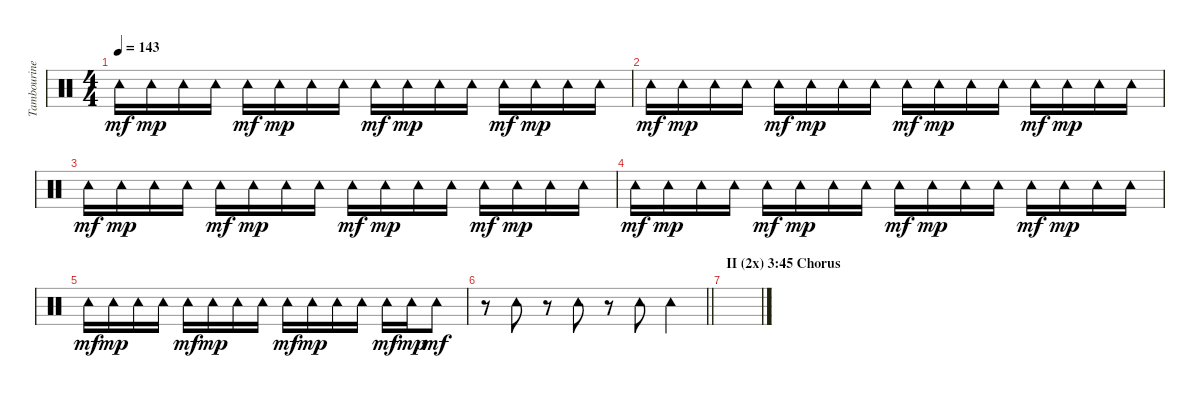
\track ("Tambourine ( I Verse + IV Solo)" "Tambourine") {instrument percussion}
\staff {score}
\articulation defaults
\ts (4 4)
\tempo 143
\clef neutral
\ks c "Tambourine (hit)".16{dy mf} "Tambourine (hit)".16{dy mp} "Tambourine (hit)".16 "Tambourine (hit)".16 "Tambourine (hit)".16{dy mf} "Tambourine (hit)".16{dy mp} "Tambourine (hit)".16 "Tambourine (hit)".16 "Tambourine (hit)".16{dy mf} "Tambourine (hit)".16{dy mp} "Tambourine (hit)".16 "Tambourine (hit)".16 "Tambourine (hit)".16{dy mf} "Tambourine (hit)".16{dy mp} "Tambourine (hit)".16 "Tambourine (hit)".16
|
"Tambourine (hit)".16{dy mf} "Tambourine (hit)".16{dy mp} "Tambourine (hit)".16 "Tambourine (hit)".16 "Tambourine (hit)".16{dy mf} "Tambourine (hit)".16{dy mp} "Tambourine (hit)".16 "Tambourine (hit)".16 "Tambourine (hit)".16{dy mf} "Tambourine (hit)".16{dy mp} "Tambourine (hit)".16 "Tambourine (hit)".16 "Tambourine (hit)".16{dy mf} "Tambourine (hit)".16{dy mp} "Tambourine (hit)".16 "Tambourine (hit)".16 |
"Tambourine (hit)".16{dy mf} "Tambourine (hit)".16{dy mp} "Tambourine (hit)".16 "Tambourine (hit)".16 "Tambourine (hit)".16{dy mf} "Tambourine (hit)".16{dy mp} "Tambourine (hit)".16 "Tambourine (hit)".16 "Tambourine (hit)".16{dy mf} "Tambourine (hit)".16{dy mp} "Tambourine (hit)".16 "Tambourine (hit)".16 "Tambourine (hit)".16{dy mf} "Tambourine (hit)".16{dy mp} "Tambourine (hit)".16 "Tambourine (hit)".16 |
"Tambourine (hit)".16{dy mf} "Tambourine (hit)".16{dy mp} "Tambourine (hit)".16 "Tambourine (hit)".16 "Tambourine (hit)".16{dy mf} "Tambourine (hit)".16{dy mp} "Tambourine (hit)".16 "Tambourine (hit)".16 "Tambourine (hit)".16{dy mf} "Tambourine (hit)".16{dy mp} "Tambourine (hit)".16 "Tambourine (hit)".16 "Tambourine (hit)".16{dy mf} "Tambourine (hit)".16{dy mp} "Tambourine (hit)".16 "Tambourine (hit)".16 |
"Tambourine (hit)".16{dy mf} "Tambourine (hit)".16{dy mp} "Tambourine (hit)".16 "Tambourine (hit)".16 "Tambourine (hit)".16{dy mf} "Tambourine (hit)".16{dy mp} "Tambourine (hit)".16 "Tambourine (hit)".16 "Tambourine (hit)".16{dy mf} "Tambourine (hit)".16{dy mp} "Tambourine (hit)".16 "Tambourine (hit)".16 "Tambourine (hit)".16{dy mf} "Tambourine (hit)".16{dy mp} "Tambourine (hit)".8{dy mf} |
\barLineRight lightlight
r.8 "Tambourine (hit)".8 r.8 "Tambourine (hit)".8 r.8 "Tambourine (hit)".8 "Tambourine (hit)".4 |
\section ("" "II (2x) 3:45 Chorus")
